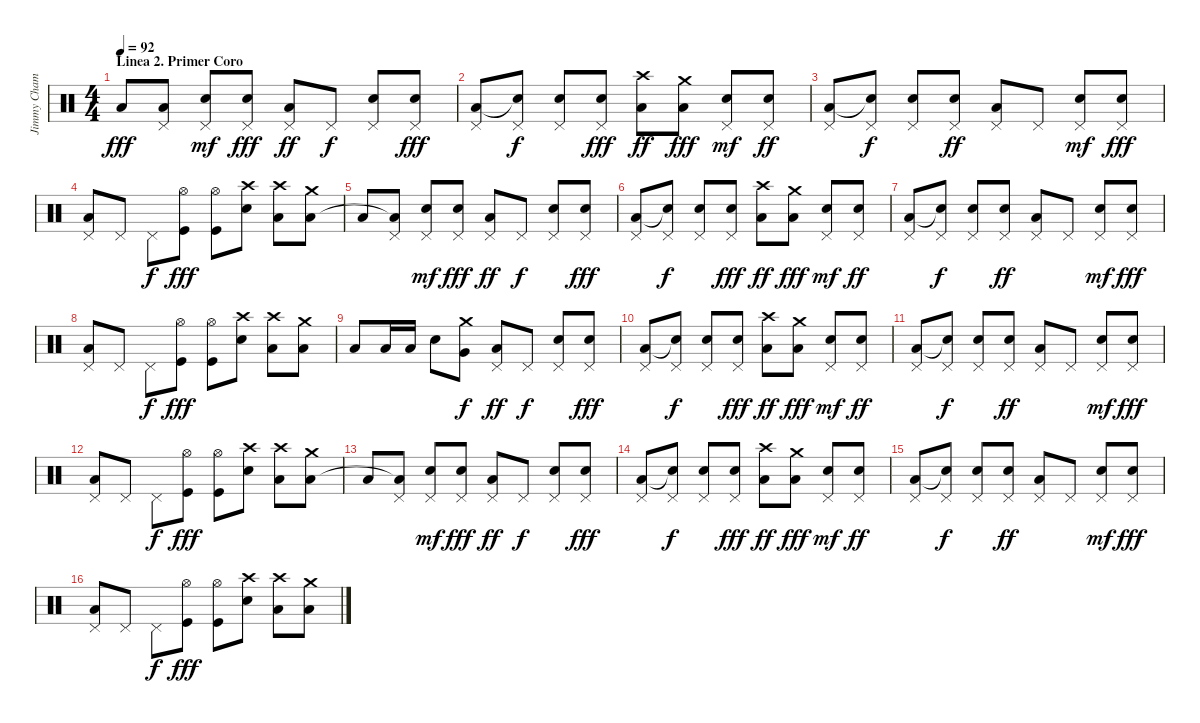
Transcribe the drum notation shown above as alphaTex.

\track ("Jimmy Chamberlin" "Jimmy Cham") {instrument percussion}
\staff {score}
\articulation defaults
\ts (4 4)
\section ("" "Linea 2. Primer Coro")
\tempo 92
\clef neutral
\ks c "Low Floor Tom (hit)".8{dy fff}
("Pedal Hi-Hat (hit)" "Low Floor Tom (hit)"{t}).8 ("Pedal Hi-Hat (hit)" "Snare (hit) 2").8{dy mf} ("Pedal Hi-Hat (hit)" "Snare (hit) 2").8{dy fff} ("Pedal Hi-Hat (hit)" "Low Floor Tom (hit)").8{dy ff} "Pedal Hi-Hat (hit)".8{dy f} ("Pedal Hi-Hat (hit)" "Snare (hit) 2").8 ("Pedal Hi-Hat (hit)" "Snare (hit) 2").8{dy fff} |
("Pedal Hi-Hat (hit)" "Low Floor Tom (hit)").8 ("Pedal Hi-Hat (hit)" "Snare (hit)"{t}).8{dy f} ("Pedal Hi-Hat (hit)" "Snare (hit) 2").8 ("Pedal Hi-Hat (hit)" "Snare (hit) 2").8{dy fff} ("Crash high (hit)" "Low Tom (hit)").8{dy ff} ("Crash medium (hit)" "Low Floor Tom (hit)").8{dy fff} ("Pedal Hi-Hat (hit)" "Snare (hit) 2").8{dy mf} ("Pedal Hi-Hat (hit)" "Snare (hit) 2").8{dy ff} |
("Pedal Hi-Hat (hit)" "Low Floor Tom (hit)").8 ("Pedal Hi-Hat (hit)" "Snare (hit)"{t}).8{dy f} ("Pedal Hi-Hat (hit)" "Snare (hit) 2").8 ("Pedal Hi-Hat (hit)" "Snare (hit) 2").8{dy ff} ("Pedal Hi-Hat (hit)" "Low Floor Tom (hit)").8 "Pedal Hi-Hat (hit)".8 ("Pedal Hi-Hat (hit)" "Snare (hit) 2").8{dy mf} ("Pedal Hi-Hat (hit)" "Snare (hit) 2").8{dy fff} |
("Pedal Hi-Hat (hit)" "Low Tom (hit)").8 "Pedal Hi-Hat (hit)".8 "Pedal Hi-Hat (hit)".8{dy f} ("Hi-Hat (open)" "Kick (hit)").8{dy fff} ("Hi-Hat (open)" "Kick (hit)").8 ("Crash high (hit)" "Snare (hit) 2").8 ("Crash high (hit)" "Low Tom (hit)").8 ("Crash medium (hit)" "Low Floor Tom (hit)").8 |
"Low Floor Tom (hit)".8 ("Pedal Hi-Hat (hit)" "Low Floor Tom (hit)"{t}).8 ("Pedal Hi-Hat (hit)" "Snare (hit) 2").8{dy mf} ("Pedal Hi-Hat (hit)" "Snare (hit) 2").8{dy fff} ("Pedal Hi-Hat (hit)" "Low Tom (hit)").8{dy ff} "Pedal Hi-Hat (hit)".8{dy f} ("Pedal Hi-Hat (hit)" "Snare (hit) 2").8 ("Pedal Hi-Hat (hit)" "Snare (hit) 2").8{dy fff} |
("Pedal Hi-Hat (hit)" "Low Tom (hit)").8 ("Pedal Hi-Hat (hit)" "Snare (hit)"{t}).8{dy f} ("Pedal Hi-Hat (hit)" "Snare (hit) 2").8 ("Pedal Hi-Hat (hit)" "Snare (hit) 2").8{dy fff} ("Crash high (hit)" "Low Tom (hit)").8{dy ff} ("Crash medium (hit)" "Low Floor Tom (hit)").8{dy fff} ("Pedal Hi-Hat (hit)" "Snare (hit) 2").8{dy mf} ("Pedal Hi-Hat (hit)" "Snare (hit) 2").8{dy ff} |
("Pedal Hi-Hat (hit)" "Low Tom (hit)").8 ("Pedal Hi-Hat (hit)" "Snare (hit)"{t}).8{dy f} ("Pedal Hi-Hat (hit)" "Snare (hit) 2").8 ("Pedal Hi-Hat (hit)" "Snare (hit) 2").8{dy ff} ("Pedal Hi-Hat (hit)" "Low Floor Tom (hit)").8 "Pedal Hi-Hat (hit)".8 ("Pedal Hi-Hat (hit)" "Snare (hit) 2").8{dy mf} ("Pedal Hi-Hat (hit)" "Snare (hit) 2").8{dy fff} |
("Pedal Hi-Hat (hit)" "Low Tom (hit)").8 "Pedal Hi-Hat (hit)".8 "Pedal Hi-Hat (hit)".8{dy f} ("Hi-Hat (open)" "Kick (hit)").8{dy fff} ("Hi-Hat (open)" "Kick (hit)").8 ("Crash high (hit)" "Snare (hit) 2").8 ("Crash high (hit)" "Low Tom (hit)").8 ("Crash medium (hit)" "Low Floor Tom (hit)").8 |
"Low Floor Tom (hit)".8 "Low Tom (hit)".16 "Low Tom (hit)".16 "Snare (hit) 2".8 ("Crash medium (hit)" "Very Low Tom (hit)").8{dy f} ("Pedal Hi-Hat (hit)" "Low Tom (hit)").8{dy ff} "Pedal Hi-Hat (hit)".8{dy f} ("Pedal Hi-Hat (hit)" "Snare (hit) 2").8 ("Pedal Hi-Hat (hit)" "Snare (hit) 2").8{dy fff} |
("Pedal Hi-Hat (hit)" "Low Tom (hit)").8 ("Pedal Hi-Hat (hit)" "Snare (hit)"{t}).8{dy f} ("Pedal Hi-Hat (hit)" "Snare (hit) 2").8 ("Pedal Hi-Hat (hit)" "Snare (hit) 2").8{dy fff} ("Crash high (hit)" "Low Tom (hit)").8{dy ff} ("Crash medium (hit)" "Low Floor Tom (hit)").8{dy fff} ("Pedal Hi-Hat (hit)" "Snare (hit) 2").8{dy mf} ("Pedal Hi-Hat (hit)" "Snare (hit) 2").8{dy ff} |
("Pedal Hi-Hat (hit)" "Low Tom (hit)").8 ("Pedal Hi-Hat (hit)" "Snare (hit)"{t}).8{dy f} ("Pedal Hi-Hat (hit)" "Snare (hit) 2").8 ("Pedal Hi-Hat (hit)" "Snare (hit) 2").8{dy ff} ("Pedal Hi-Hat (hit)" "Low Floor Tom (hit)").8 "Pedal Hi-Hat (hit)".8 ("Pedal Hi-Hat (hit)" "Snare (hit) 2").8{dy mf} ("Pedal Hi-Hat (hit)" "Snare (hit) 2").8{dy fff} |
("Pedal Hi-Hat (hit)" "Low Tom (hit)").8 "Pedal Hi-Hat (hit)".8 "Pedal Hi-Hat (hit)".8{dy f} ("Hi-Hat (open)" "Kick (hit)").8{dy fff} ("Hi-Hat (open)" "Kick (hit)").8 ("Crash high (hit)" "Snare (hit) 2").8 ("Crash high (hit)" "Low Tom (hit)").8 ("Crash medium (hit)" "Low Floor Tom (hit)").8 |
"Low Floor Tom (hit)".8 ("Pedal Hi-Hat (hit)" "Low Floor Tom (hit)"{t}).8 ("Pedal Hi-Hat (hit)" "Snare (hit) 2").8{dy mf} ("Pedal Hi-Hat (hit)" "Snare (hit) 2").8{dy fff} ("Pedal Hi-Hat (hit)" "Low Tom (hit)").8{dy ff} "Pedal Hi-Hat (hit)".8{dy f} ("Pedal Hi-Hat (hit)" "Snare (hit) 2").8 ("Pedal Hi-Hat (hit)" "Snare (hit) 2").8{dy fff} |
("Pedal Hi-Hat (hit)" "Low Tom (hit)").8 ("Pedal Hi-Hat (hit)" "Snare (hit)"{t}).8{dy f} ("Pedal Hi-Hat (hit)" "Snare (hit) 2").8 ("Pedal Hi-Hat (hit)" "Snare (hit) 2").8{dy fff} ("Crash high (hit)" "Low Tom (hit)").8{dy ff} ("Crash medium (hit)" "Low Floor Tom (hit)").8{dy fff} ("Pedal Hi-Hat (hit)" "Snare (hit) 2").8{dy mf} ("Pedal Hi-Hat (hit)" "Snare (hit) 2").8{dy ff} |
("Pedal Hi-Hat (hit)" "Low Tom (hit)").8 ("Pedal Hi-Hat (hit)" "Snare (hit)"{t}).8{dy f} ("Pedal Hi-Hat (hit)" "Snare (hit) 2").8 ("Pedal Hi-Hat (hit)" "Snare (hit) 2").8{dy ff} ("Pedal Hi-Hat (hit)" "Low Floor Tom (hit)").8 "Pedal Hi-Hat (hit)".8 ("Pedal Hi-Hat (hit)" "Snare (hit) 2").8{dy mf} ("Pedal Hi-Hat (hit)" "Snare (hit) 2").8{dy fff} |
("Pedal Hi-Hat (hit)" "Low Tom (hit)").8 "Pedal Hi-Hat (hit)".8 "Pedal Hi-Hat (hit)".8{dy f} ("Hi-Hat (open)" "Kick (hit)").8{dy fff} ("Hi-Hat (open)" "Kick (hit)").8 ("Crash high (hit)" "Snare (hit) 2").8 ("Crash high (hit)" "Low Tom (hit)").8 ("Crash medium (hit)" "Low Floor Tom (hit)").8
